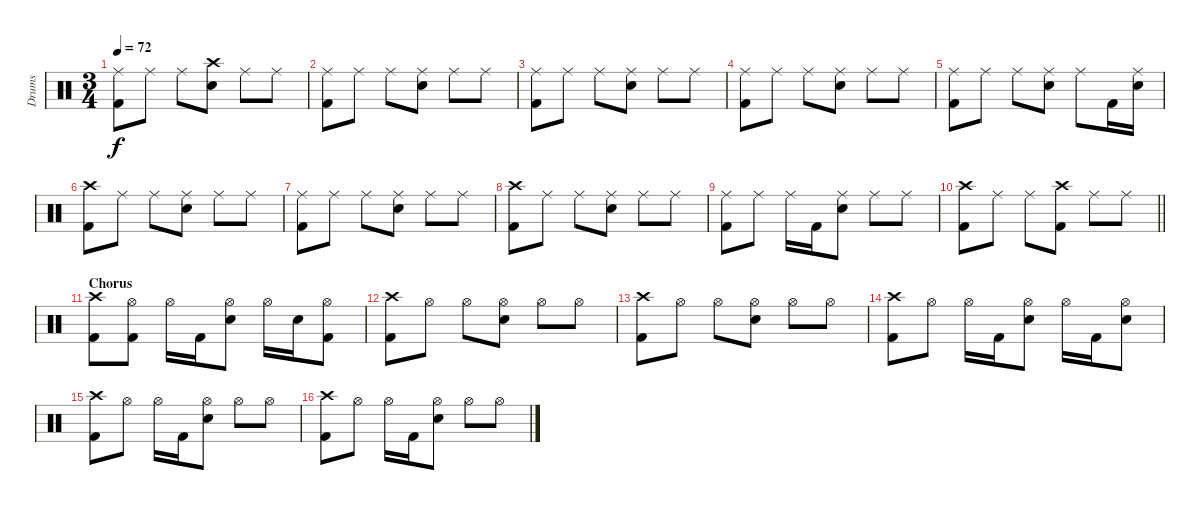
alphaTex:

\track ("Drums" "Drums") {instrument percussion}
\staff {score}
\articulation defaults
\ts (3 4)
\tempo 72
\clef neutral
\ks c
("Ride (middle)" "Kick (hit) 2").8{dy f} "Ride (middle)".8 "Ride (middle)".8 ("Crash high (hit)" "Electric Snare (hit)").8 "Ride (middle)".8 "Ride (middle)".8 |
("Ride (middle)" "Kick (hit) 2").8 "Ride (middle)".8 "Ride (middle)".8 ("Ride (middle)" "Electric Snare (hit)").8 "Ride (middle)".8 "Ride (middle)".8 |
("Ride (middle)" "Kick (hit) 2").8 "Ride (middle)".8 "Ride (middle)".8 ("Ride (middle)" "Electric Snare (hit)").8 "Ride (middle)".8 "Ride (middle)".8 |
("Ride (middle)" "Kick (hit) 2").8 "Ride (middle)".8 "Ride (middle)".8 ("Ride (middle)" "Electric Snare (hit)").8 "Ride (middle)".8 "Ride (middle)".8 |
("Ride (middle)" "Kick (hit) 2").8 "Ride (middle)".8 "Ride (middle)".8 ("Ride (middle)" "Electric Snare (hit)").8 "Ride (middle)".8 "Kick (hit) 2".16 ("Ride (middle)" "Electric Snare (hit)").16 |
("Crash high (hit)" "Kick (hit) 2").8 "Ride (middle)".8 "Ride (middle)".8 ("Ride (middle)" "Electric Snare (hit)").8 "Ride (middle)".8 "Ride (middle)".8 |
("Ride (middle)" "Kick (hit) 2").8 "Ride (middle)".8 "Ride (middle)".8 ("Ride (middle)" "Electric Snare (hit)").8 "Ride (middle)".8 "Ride (middle)".8 |
("Crash high (hit)" "Kick (hit) 2").8 "Ride (middle)".8 "Ride (middle)".8 ("Ride (middle)" "Electric Snare (hit)").8 "Ride (middle)".8 "Ride (middle)".8 |
("Ride (middle)" "Kick (hit) 2").8 "Ride (middle)".8 "Ride (middle)".16 "Kick (hit) 2".16 ("Ride (middle)" "Electric Snare (hit)").8 "Ride (middle)".8 "Ride (middle)".8 |
\barLineRight lightlight
("Crash high (hit)" "Kick (hit) 2").8 "Ride (middle)".8 "Ride (middle)".8 ("Crash high (hit)" "Kick (hit) 2").8 "Ride (middle)".8 "Ride (middle)".8 |
\section ("" "Chorus")
("Crash high (hit)" "Kick (hit) 2").8 ("Hi-Hat (open)" "Kick (hit) 2").8 "Hi-Hat (open)".16 "Kick (hit) 2".16 ("Hi-Hat (open)" "Electric Snare (hit)").8 "Hi-Hat (open)".16 "Electric Snare (hit)".16 ("Hi-Hat (open)" "Kick (hit) 2").8 |
("Crash high (hit)" "Kick (hit) 2").8 "Hi-Hat (open)".8 "Hi-Hat (open)".8 ("Hi-Hat (open)" "Electric Snare (hit)").8 "Hi-Hat (open)".8 "Hi-Hat (open)".8 |
("Crash high (hit)" "Kick (hit) 2").8 "Hi-Hat (open)".8 "Hi-Hat (open)".8 ("Hi-Hat (open)" "Electric Snare (hit)").8 "Hi-Hat (open)".8 "Hi-Hat (open)".8 |
("Crash high (hit)" "Kick (hit) 2").8 "Hi-Hat (open)".8 "Hi-Hat (open)".16 "Kick (hit) 2".16 ("Hi-Hat (open)" "Electric Snare (hit)").8 "Hi-Hat (open)".16 "Kick (hit) 2".16 ("Hi-Hat (open)" "Electric Snare (hit)").8 |
("Crash high (hit)" "Kick (hit) 2").8 "Hi-Hat (open)".8 "Hi-Hat (open)".16 "Kick (hit) 2".16 ("Hi-Hat (open)" "Electric Snare (hit)").8 "Hi-Hat (open)".8 "Hi-Hat (open)".8 |
("Crash high (hit)" "Kick (hit) 2").8 "Hi-Hat (open)".8 "Hi-Hat (open)".16 "Kick (hit) 2".16 ("Hi-Hat (open)" "Electric Snare (hit)").8 "Hi-Hat (open)".8 "Hi-Hat (open)".8
